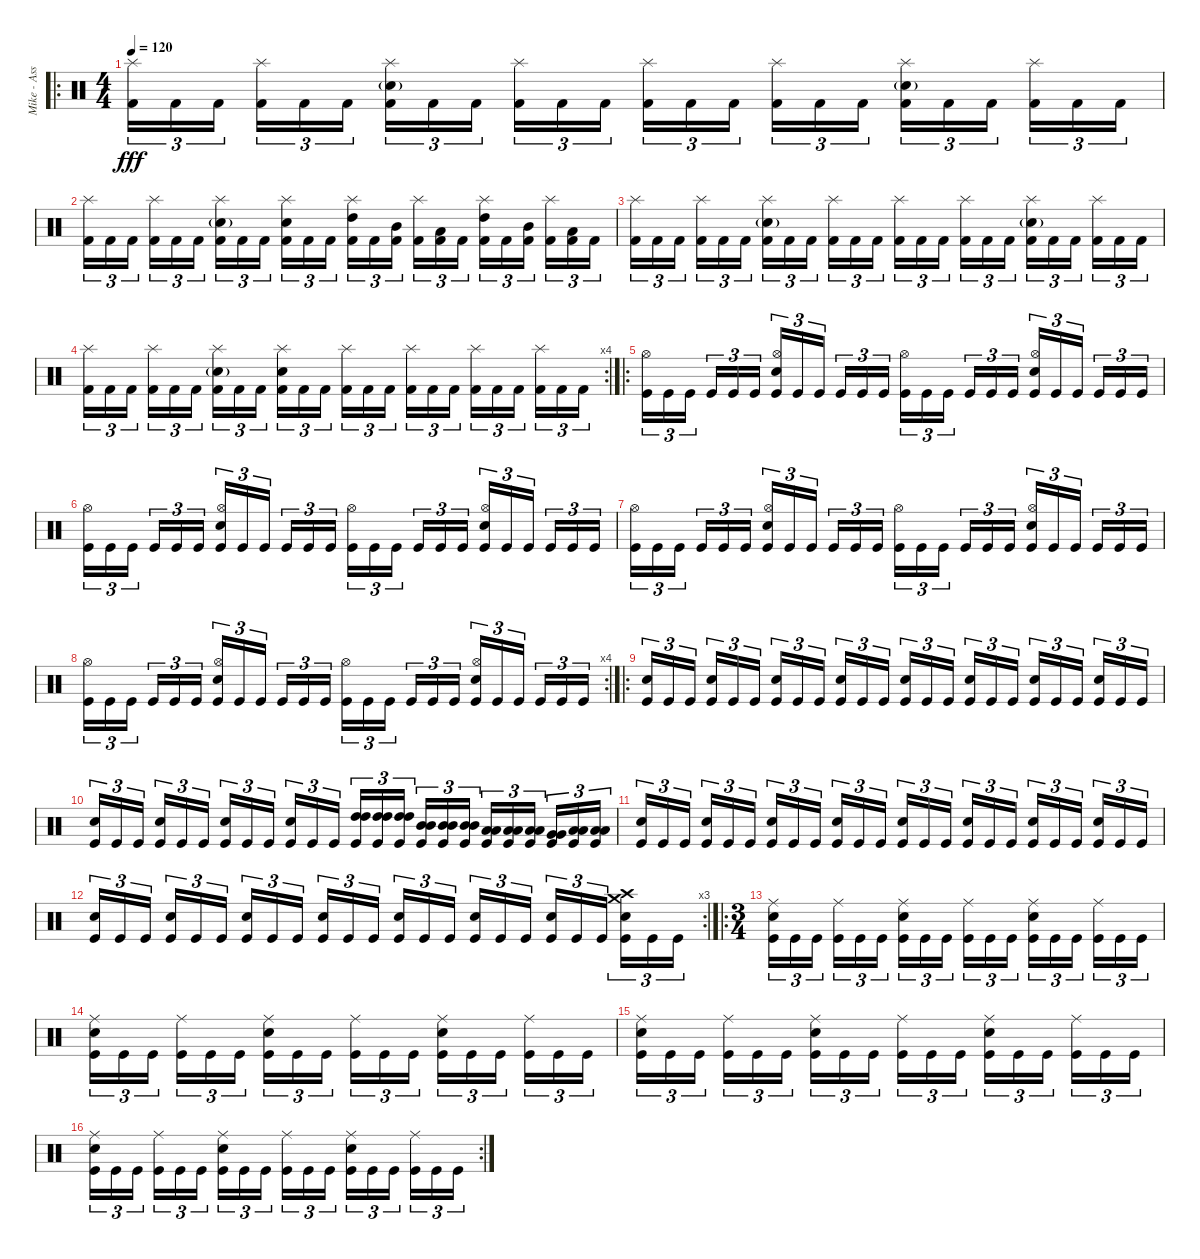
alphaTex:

\track ("Mike - Assualt And Battery" "Mike - Ass") {instrument percussion}
\staff {score}
\articulation defaults
\ro
\ts (4 4)
\tempo 120
\clef neutral
\ks c
("Splash (hit)" "Kick (hit) 2").16{tu (3 2) dy fff} "Kick (hit) 2".16{tu (3 2)} "Kick (hit) 2".16{tu (3 2)} ("Splash (hit)" "Kick (hit) 2").16{tu (3 2)} "Kick (hit) 2".16{tu (3 2)} "Kick (hit) 2".16{tu (3 2)} ("Electric Snare (hit)"{g} "Splash (hit)" "Kick (hit) 2").16{tu (3 2)} "Kick (hit) 2".16{tu (3 2)} "Kick (hit) 2".16{tu (3 2)} ("Splash (hit)" "Kick (hit) 2").16{tu (3 2)} "Kick (hit) 2".16{tu (3 2)} "Kick (hit) 2".16{tu (3 2)} ("Splash (hit)" "Kick (hit) 2").16{tu (3 2)} "Kick (hit) 2".16{tu (3 2)} "Kick (hit) 2".16{tu (3 2)} ("Splash (hit)" "Kick (hit) 2").16{tu (3 2)} "Kick (hit) 2".16{tu (3 2)} "Kick (hit) 2".16{tu (3 2)} ("Electric Snare (hit)"{g} "Splash (hit)" "Kick (hit) 2").16{tu (3 2)} "Kick (hit) 2".16{tu (3 2)} "Kick (hit) 2".16{tu (3 2)} ("Splash (hit)" "Kick (hit) 2").16{tu (3 2)} "Kick (hit) 2".16{tu (3 2)} "Kick (hit) 2".16{tu (3 2)} |
("Splash (hit)" "Kick (hit) 2").16{tu (3 2)} "Kick (hit) 2".16{tu (3 2)} "Kick (hit) 2".16{tu (3 2)} ("Splash (hit)" "Kick (hit) 2").16{tu (3 2)} "Kick (hit) 2".16{tu (3 2)} "Kick (hit) 2".16{tu (3 2)} ("Electric Snare (hit)"{g} "Splash (hit)" "Kick (hit) 2").16{tu (3 2)} "Kick (hit) 2".16{tu (3 2)} "Kick (hit) 2".16{tu (3 2)} ("Electric Snare (hit)" "Splash (hit)" "Kick (hit) 2").16{tu (3 2)} "Kick (hit) 2".16{tu (3 2)} "Kick (hit) 2".16{tu (3 2)} ("High Tom (hit)" "Splash (hit)" "Kick (hit) 2").16{tu (3 2)} "Kick (hit) 2".16{tu (3 2)} ("Mid Tom (hit)" "Kick (hit) 2").16{tu (3 2)} ("Splash (hit)" "Kick (hit) 2").16{tu (3 2)} ("Low Tom (hit)" "Kick (hit) 2").16{tu (3 2)} "Kick (hit) 2".16{tu (3 2)} ("High Tom (hit)" "Splash (hit)" "Kick (hit) 2").16{tu (3 2)} "Kick (hit) 2".16{tu (3 2)} ("Mid Tom (hit)" "Kick (hit) 2").16{tu (3 2)} ("Splash (hit)" "Kick (hit) 2").16{tu (3 2)} ("Low Tom (hit)" "Kick (hit) 2").16{tu (3 2)} "Kick (hit) 2".16{tu (3 2)} |
("Splash (hit)" "Kick (hit) 2").16{tu (3 2)} "Kick (hit) 2".16{tu (3 2)} "Kick (hit) 2".16{tu (3 2)} ("Splash (hit)" "Kick (hit) 2").16{tu (3 2)} "Kick (hit) 2".16{tu (3 2)} "Kick (hit) 2".16{tu (3 2)} ("Electric Snare (hit)"{g} "Splash (hit)" "Kick (hit) 2").16{tu (3 2)} "Kick (hit) 2".16{tu (3 2)} "Kick (hit) 2".16{tu (3 2)} ("Splash (hit)" "Kick (hit) 2").16{tu (3 2)} "Kick (hit) 2".16{tu (3 2)} "Kick (hit) 2".16{tu (3 2)} ("Splash (hit)" "Kick (hit) 2").16{tu (3 2)} "Kick (hit) 2".16{tu (3 2)} "Kick (hit) 2".16{tu (3 2)} ("Splash (hit)" "Kick (hit) 2").16{tu (3 2)} "Kick (hit) 2".16{tu (3 2)} "Kick (hit) 2".16{tu (3 2)} ("Electric Snare (hit)"{g} "Splash (hit)" "Kick (hit) 2").16{tu (3 2)} "Kick (hit) 2".16{tu (3 2)} "Kick (hit) 2".16{tu (3 2)} ("Splash (hit)" "Kick (hit) 2").16{tu (3 2)} "Kick (hit) 2".16{tu (3 2)} "Kick (hit) 2".16{tu (3 2)} |
\rc 4
("Splash (hit)" "Kick (hit) 2").16{tu (3 2)} "Kick (hit) 2".16{tu (3 2)} "Kick (hit) 2".16{tu (3 2)} ("Splash (hit)" "Kick (hit) 2").16{tu (3 2)} "Kick (hit) 2".16{tu (3 2)} "Kick (hit) 2".16{tu (3 2)} ("Electric Snare (hit)"{g} "Splash (hit)" "Kick (hit) 2").16{tu (3 2)} "Kick (hit) 2".16{tu (3 2)} "Kick (hit) 2".16{tu (3 2)} ("Electric Snare (hit)" "Splash (hit)" "Kick (hit) 2").16{tu (3 2)} "Kick (hit) 2".16{tu (3 2)} "Kick (hit) 2".16{tu (3 2)} ("Splash (hit)" "Kick (hit) 2").16{tu (3 2)} "Kick (hit) 2".16{tu (3 2)} "Kick (hit) 2".16{tu (3 2)} ("Splash (hit)" "Kick (hit) 2").16{tu (3 2)} "Kick (hit) 2".16{tu (3 2)} "Kick (hit) 2".16{tu (3 2)} ("Splash (hit)" "Kick (hit) 2").16{tu (3 2)} "Kick (hit) 2".16{tu (3 2)} "Kick (hit) 2".16{tu (3 2)} ("Splash (hit)" "Kick (hit) 2").16{tu (3 2)} "Kick (hit) 2".16{tu (3 2)} "Kick (hit) 2".16{tu (3 2)} |
\ro
("Hi-Hat (open)" "Kick (hit)").16{tu (3 2)} "Kick (hit)".16{tu (3 2)} "Kick (hit)".16{tu (3 2)} "Kick (hit)".16{tu (3 2)} "Kick (hit)".16{tu (3 2)} "Kick (hit)".16{tu (3 2)} ("Hi-Hat (open)" "Electric Snare (hit)" "Kick (hit)").16{tu (3 2)} "Kick (hit)".16{tu (3 2)} "Kick (hit)".16{tu (3 2)} "Kick (hit)".16{tu (3 2)} "Kick (hit)".16{tu (3 2)} "Kick (hit)".16{tu (3 2)} ("Hi-Hat (open)" "Kick (hit)").16{tu (3 2)} "Kick (hit)".16{tu (3 2)} "Kick (hit)".16{tu (3 2)} "Kick (hit)".16{tu (3 2)} "Kick (hit)".16{tu (3 2)} "Kick (hit)".16{tu (3 2)} ("Hi-Hat (open)" "Electric Snare (hit)" "Kick (hit)").16{tu (3 2)} "Kick (hit)".16{tu (3 2)} "Kick (hit)".16{tu (3 2)} "Kick (hit)".16{tu (3 2)} "Kick (hit)".16{tu (3 2)} "Kick (hit)".16{tu (3 2)} |
("Hi-Hat (open)" "Kick (hit)").16{tu (3 2)} "Kick (hit)".16{tu (3 2)} "Kick (hit)".16{tu (3 2)} "Kick (hit)".16{tu (3 2)} "Kick (hit)".16{tu (3 2)} "Kick (hit)".16{tu (3 2)} ("Hi-Hat (open)" "Electric Snare (hit)" "Kick (hit)").16{tu (3 2)} "Kick (hit)".16{tu (3 2)} "Kick (hit)".16{tu (3 2)} "Kick (hit)".16{tu (3 2)} "Kick (hit)".16{tu (3 2)} "Kick (hit)".16{tu (3 2)} ("Hi-Hat (open)" "Kick (hit)").16{tu (3 2)} "Kick (hit)".16{tu (3 2)} "Kick (hit)".16{tu (3 2)} "Kick (hit)".16{tu (3 2)} "Kick (hit)".16{tu (3 2)} "Kick (hit)".16{tu (3 2)} ("Hi-Hat (open)" "Electric Snare (hit)" "Kick (hit)").16{tu (3 2)} "Kick (hit)".16{tu (3 2)} "Kick (hit)".16{tu (3 2)} "Kick (hit)".16{tu (3 2)} "Kick (hit)".16{tu (3 2)} "Kick (hit)".16{tu (3 2)} |
("Hi-Hat (open)" "Kick (hit)").16{tu (3 2)} "Kick (hit)".16{tu (3 2)} "Kick (hit)".16{tu (3 2)} "Kick (hit)".16{tu (3 2)} "Kick (hit)".16{tu (3 2)} "Kick (hit)".16{tu (3 2)} ("Hi-Hat (open)" "Electric Snare (hit)" "Kick (hit)").16{tu (3 2)} "Kick (hit)".16{tu (3 2)} "Kick (hit)".16{tu (3 2)} "Kick (hit)".16{tu (3 2)} "Kick (hit)".16{tu (3 2)} "Kick (hit)".16{tu (3 2)} ("Hi-Hat (open)" "Kick (hit)").16{tu (3 2)} "Kick (hit)".16{tu (3 2)} "Kick (hit)".16{tu (3 2)} "Kick (hit)".16{tu (3 2)} "Kick (hit)".16{tu (3 2)} "Kick (hit)".16{tu (3 2)} ("Hi-Hat (open)" "Electric Snare (hit)" "Kick (hit)").16{tu (3 2)} "Kick (hit)".16{tu (3 2)} "Kick (hit)".16{tu (3 2)} "Kick (hit)".16{tu (3 2)} "Kick (hit)".16{tu (3 2)} "Kick (hit)".16{tu (3 2)} |
\rc 4
("Hi-Hat (open)" "Kick (hit)").16{tu (3 2)} "Kick (hit)".16{tu (3 2)} "Kick (hit)".16{tu (3 2)} "Kick (hit)".16{tu (3 2)} "Kick (hit)".16{tu (3 2)} "Kick (hit)".16{tu (3 2)} ("Hi-Hat (open)" "Electric Snare (hit)" "Kick (hit)").16{tu (3 2)} "Kick (hit)".16{tu (3 2)} "Kick (hit)".16{tu (3 2)} "Kick (hit)".16{tu (3 2)} "Kick (hit)".16{tu (3 2)} "Kick (hit)".16{tu (3 2)} ("Hi-Hat (open)" "Kick (hit)").16{tu (3 2)} "Kick (hit)".16{tu (3 2)} "Kick (hit)".16{tu (3 2)} "Kick (hit)".16{tu (3 2)} "Kick (hit)".16{tu (3 2)} "Kick (hit)".16{tu (3 2)} ("Hi-Hat (open)" "Electric Snare (hit)" "Kick (hit)").16{tu (3 2)} "Kick (hit)".16{tu (3 2)} "Kick (hit)".16{tu (3 2)} "Kick (hit)".16{tu (3 2)} "Kick (hit)".16{tu (3 2)} "Kick (hit)".16{tu (3 2)} |
\ro
("Electric Snare (hit)" "Kick (hit)").16{tu (3 2)} "Kick (hit)".16{tu (3 2)} "Kick (hit)".16{tu (3 2)} ("Electric Snare (hit)" "Kick (hit)").16{tu (3 2)} "Kick (hit)".16{tu (3 2)} "Kick (hit)".16{tu (3 2)} ("Electric Snare (hit)" "Kick (hit)").16{tu (3 2)} "Kick (hit)".16{tu (3 2)} "Kick (hit)".16{tu (3 2)} ("Electric Snare (hit)" "Kick (hit)").16{tu (3 2)} "Kick (hit)".16{tu (3 2)} "Kick (hit)".16{tu (3 2)} ("Electric Snare (hit)" "Kick (hit)").16{tu (3 2)} "Kick (hit)".16{tu (3 2)} "Kick (hit)".16{tu (3 2)} ("Electric Snare (hit)" "Kick (hit)").16{tu (3 2)} "Kick (hit)".16{tu (3 2)} "Kick (hit)".16{tu (3 2)} ("Electric Snare (hit)" "Kick (hit)").16{tu (3 2)} "Kick (hit)".16{tu (3 2)} "Kick (hit)".16{tu (3 2)} ("Electric Snare (hit)" "Kick (hit)").16{tu (3 2)} "Kick (hit)".16{tu (3 2)} "Kick (hit)".16{tu (3 2)} |
("Electric Snare (hit)" "Kick (hit)").16{tu (3 2)} "Kick (hit)".16{tu (3 2)} "Kick (hit)".16{tu (3 2)} ("Electric Snare (hit)" "Kick (hit)").16{tu (3 2)} "Kick (hit)".16{tu (3 2)} "Kick (hit)".16{tu (3 2)} ("Electric Snare (hit)" "Kick (hit)").16{tu (3 2)} "Kick (hit)".16{tu (3 2)} "Kick (hit)".16{tu (3 2)} ("Electric Snare (hit)" "Kick (hit)").16{tu (3 2)} "Kick (hit)".16{tu (3 2)} "Kick (hit)".16{tu (3 2)} ("High Tom (hit)" "High Tom (hit)" "Kick (hit)").16{tu (3 2)} ("High Tom (hit)" "High Tom (hit)" "Kick (hit)").16{tu (3 2)} ("High Tom (hit)" "High Tom (hit)" "Kick (hit)").16{tu (3 2)} ("Mid Tom (hit)" "Mid Tom (hit)" "Kick (hit)").16{tu (3 2)} ("Mid Tom (hit)" "Mid Tom (hit)" "Kick (hit)").16{tu (3 2)} ("Mid Tom (hit)" "Mid Tom (hit)" "Kick (hit)").16{tu (3 2)} ("Low Tom (hit)" "Low Tom (hit)" "Kick (hit)").16{tu (3 2)} ("Low Tom (hit)" "Low Tom (hit)" "Kick (hit)").16{tu (3 2)} ("Low Tom (hit)" "Low Tom (hit)" "Kick (hit)").16{tu (3 2)} ("Very Low Tom (hit)" "Very Low Tom (hit)" "Kick (hit)").16{tu (3 2)} ("Low Floor Tom (hit)" "Low Floor Tom (hit)" "Kick (hit)").16{tu (3 2)} ("Low Floor Tom (hit)" "Low Floor Tom (hit)" "Kick (hit)").16{tu (3 2)} |
("Electric Snare (hit)" "Kick (hit)").16{tu (3 2)} "Kick (hit)".16{tu (3 2)} "Kick (hit)".16{tu (3 2)} ("Electric Snare (hit)" "Kick (hit)").16{tu (3 2)} "Kick (hit)".16{tu (3 2)} "Kick (hit)".16{tu (3 2)} ("Electric Snare (hit)" "Kick (hit)").16{tu (3 2)} "Kick (hit)".16{tu (3 2)} "Kick (hit)".16{tu (3 2)} ("Electric Snare (hit)" "Kick (hit)").16{tu (3 2)} "Kick (hit)".16{tu (3 2)} "Kick (hit)".16{tu (3 2)} ("Electric Snare (hit)" "Kick (hit)").16{tu (3 2)} "Kick (hit)".16{tu (3 2)} "Kick (hit)".16{tu (3 2)} ("Electric Snare (hit)" "Kick (hit)").16{tu (3 2)} "Kick (hit)".16{tu (3 2)} "Kick (hit)".16{tu (3 2)} ("Electric Snare (hit)" "Kick (hit)").16{tu (3 2)} "Kick (hit)".16{tu (3 2)} "Kick (hit)".16{tu (3 2)} ("Electric Snare (hit)" "Kick (hit)").16{tu (3 2)} "Kick (hit)".16{tu (3 2)} "Kick (hit)".16{tu (3 2)} |
\rc 3
("Electric Snare (hit)" "Kick (hit)").16{tu (3 2)} "Kick (hit)".16{tu (3 2)} "Kick (hit)".16{tu (3 2)} ("Electric Snare (hit)" "Kick (hit)").16{tu (3 2)} "Kick (hit)".16{tu (3 2)} "Kick (hit)".16{tu (3 2)} ("Electric Snare (hit)" "Kick (hit)").16{tu (3 2)} "Kick (hit)".16{tu (3 2)} "Kick (hit)".16{tu (3 2)} ("Electric Snare (hit)" "Kick (hit)").16{tu (3 2)} "Kick (hit)".16{tu (3 2)} "Kick (hit)".16{tu (3 2)} ("Electric Snare (hit)" "Kick (hit)").16{tu (3 2)} "Kick (hit)".16{tu (3 2)} "Kick (hit)".16{tu (3 2)} ("Electric Snare (hit)" "Kick (hit)").16{tu (3 2)} "Kick (hit)".16{tu (3 2)} "Kick (hit)".16{tu (3 2)} ("Electric Snare (hit)" "Kick (hit)").16{tu (3 2)} "Kick (hit)".16{tu (3 2)} "Kick (hit)".16{tu (3 2)} ("Crash medium (hit)" "Crash high (hit)" "Electric Snare (hit)" "Kick (hit)").16{tu (3 2)} "Kick (hit)".16{tu (3 2)} "Kick (hit)".16{tu (3 2)} |
\ro
\ts (3 4)
("Snare (hit) 2" "Ride (middle)" "Kick (hit)").16{tu (3 2)} "Kick (hit)".16{tu (3 2)} "Kick (hit)".16{tu (3 2)} ("Ride (middle)" "Kick (hit)").16{tu (3 2)} "Kick (hit)".16{tu (3 2)} "Kick (hit)".16{tu (3 2)} ("Snare (hit) 2" "Ride (middle)" "Kick (hit)").16{tu (3 2)} "Kick (hit)".16{tu (3 2)} "Kick (hit)".16{tu (3 2)} ("Ride (middle)" "Kick (hit)").16{tu (3 2)} "Kick (hit)".16{tu (3 2)} "Kick (hit)".16{tu (3 2)} ("Snare (hit) 2" "Ride (middle)" "Kick (hit)").16{tu (3 2)} "Kick (hit)".16{tu (3 2)} "Kick (hit)".16{tu (3 2)} ("Ride (middle)" "Kick (hit)").16{tu (3 2)} "Kick (hit)".16{tu (3 2)} "Kick (hit)".16{tu (3 2)} |
("Snare (hit) 2" "Ride (middle)" "Kick (hit)").16{tu (3 2)} "Kick (hit)".16{tu (3 2)} "Kick (hit)".16{tu (3 2)} ("Ride (middle)" "Kick (hit)").16{tu (3 2)} "Kick (hit)".16{tu (3 2)} "Kick (hit)".16{tu (3 2)} ("Snare (hit) 2" "Ride (middle)" "Kick (hit)").16{tu (3 2)} "Kick (hit)".16{tu (3 2)} "Kick (hit)".16{tu (3 2)} ("Ride (middle)" "Kick (hit)").16{tu (3 2)} "Kick (hit)".16{tu (3 2)} "Kick (hit)".16{tu (3 2)} ("Snare (hit) 2" "Ride (middle)" "Kick (hit)").16{tu (3 2)} "Kick (hit)".16{tu (3 2)} "Kick (hit)".16{tu (3 2)} ("Ride (middle)" "Kick (hit)").16{tu (3 2)} "Kick (hit)".16{tu (3 2)} "Kick (hit)".16{tu (3 2)} |
("Snare (hit) 2" "Ride (middle)" "Kick (hit)").16{tu (3 2)} "Kick (hit)".16{tu (3 2)} "Kick (hit)".16{tu (3 2)} ("Ride (middle)" "Kick (hit)").16{tu (3 2)} "Kick (hit)".16{tu (3 2)} "Kick (hit)".16{tu (3 2)} ("Snare (hit) 2" "Ride (middle)" "Kick (hit)").16{tu (3 2)} "Kick (hit)".16{tu (3 2)} "Kick (hit)".16{tu (3 2)} ("Ride (middle)" "Kick (hit)").16{tu (3 2)} "Kick (hit)".16{tu (3 2)} "Kick (hit)".16{tu (3 2)} ("Snare (hit) 2" "Ride (middle)" "Kick (hit)").16{tu (3 2)} "Kick (hit)".16{tu (3 2)} "Kick (hit)".16{tu (3 2)} ("Ride (middle)" "Kick (hit)").16{tu (3 2)} "Kick (hit)".16{tu (3 2)} "Kick (hit)".16{tu (3 2)} |
\rc 2
("Snare (hit) 2" "Ride (middle)" "Kick (hit)").16{tu (3 2)} "Kick (hit)".16{tu (3 2)} "Kick (hit)".16{tu (3 2)} ("Ride (middle)" "Kick (hit)").16{tu (3 2)} "Kick (hit)".16{tu (3 2)} "Kick (hit)".16{tu (3 2)} ("Snare (hit) 2" "Ride (middle)" "Kick (hit)").16{tu (3 2)} "Kick (hit)".16{tu (3 2)} "Kick (hit)".16{tu (3 2)} ("Ride (middle)" "Kick (hit)").16{tu (3 2)} "Kick (hit)".16{tu (3 2)} "Kick (hit)".16{tu (3 2)} ("Snare (hit) 2" "Ride (middle)" "Kick (hit)").16{tu (3 2)} "Kick (hit)".16{tu (3 2)} "Kick (hit)".16{tu (3 2)} ("Ride (middle)" "Kick (hit)").16{tu (3 2)} "Kick (hit)".16{tu (3 2)} "Kick (hit)".16{tu (3 2)}
